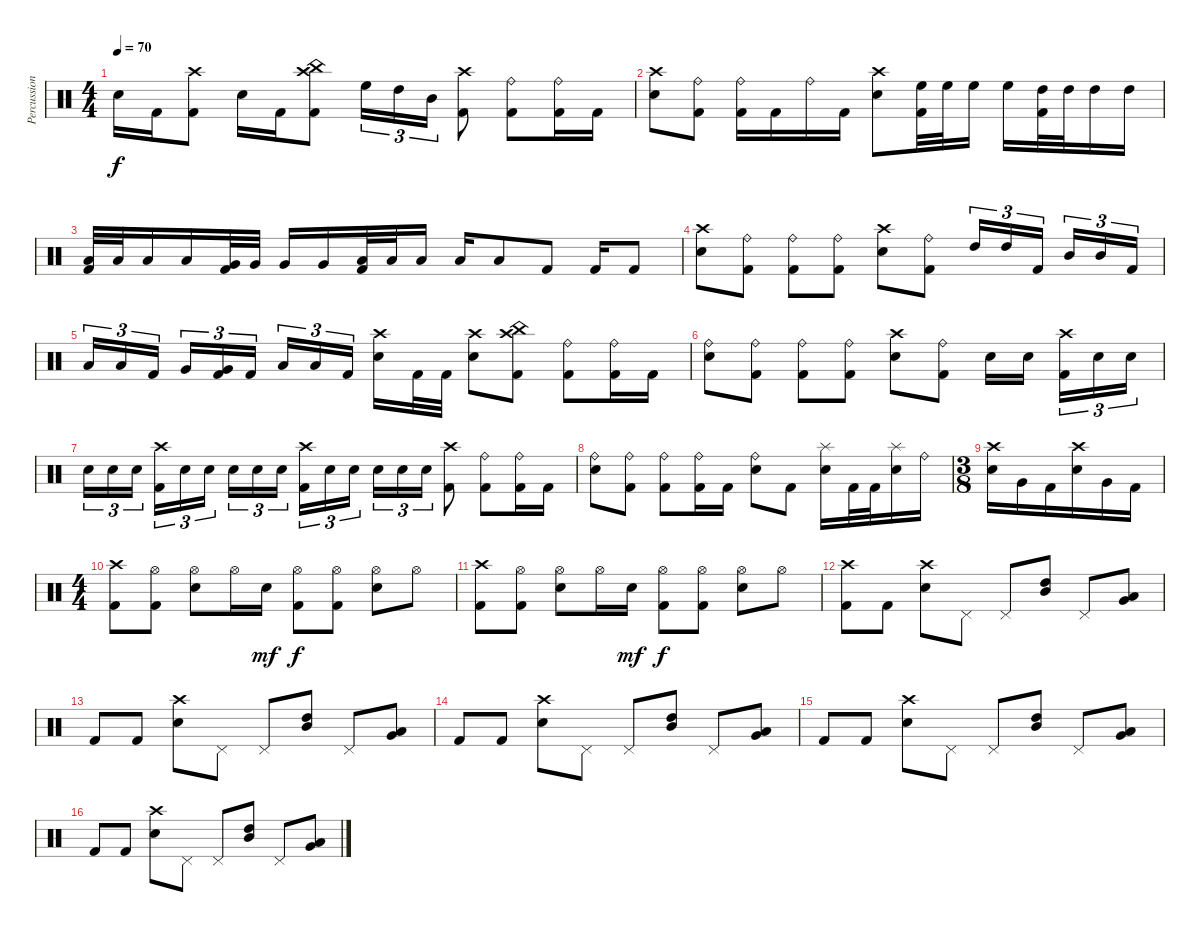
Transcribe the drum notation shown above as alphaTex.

\track ("Percussion" "Percussion") {instrument percussion}
\staff {score}
\articulation defaults
\ts (4 4)
\tempo 70
\clef neutral
\ks c "Snare (hit) 2".16{dy f} "Kick (hit) 2".16
("Crash high (hit)" "Kick (hit) 2").8 "Snare (hit) 2".16 "Kick (hit) 2".16 ("Crash high (hit)" "China (hit)" "Kick (hit) 2").8 "High Floor Tom (hit)".16{tu (3 2)} "High Tom (hit)".16{tu (3 2)} "Mid Tom (hit)".16{tu (3 2)} ("Crash high (hit)" "Kick (hit) 2").8 ("Ride (bell)" "Kick (hit) 2").8 ("Ride (bell)" "Kick (hit) 2").16 "Kick (hit) 2".16 |
("Crash high (hit)" "Snare (hit) 2").8 ("Ride (bell)" "Kick (hit) 2").8 ("Ride (bell)" "Kick (hit) 2").16 "Kick (hit) 2".16 "Ride (bell)".16 "Kick (hit) 2".16 ("Crash high (hit)" "Snare (hit) 2").8 ("High Floor Tom (hit)" "Kick (hit) 2").32 "High Floor Tom (hit)".32 "High Floor Tom (hit)".16 "High Floor Tom (hit)".16 ("High Tom (hit)" "Kick (hit) 2").32 "High Tom (hit)".32 "High Tom (hit)".16 "High Tom (hit)".16 |
("Low Tom (hit)" "Kick (hit) 2").32 "Low Tom (hit)".32 "Low Tom (hit)".16 "Low Tom (hit)".16 ("Very Low Tom (hit)" "Kick (hit) 2").32 "Very Low Tom (hit)".32 "Very Low Tom (hit)".16 "Very Low Tom (hit)".16 ("Low Floor Tom (hit)" "Kick (hit) 2").32 "Low Floor Tom (hit)".32 "Low Floor Tom (hit)".16 "Low Floor Tom (hit)".16 "Low Floor Tom (hit)".8 "Kick (hit) 2".8 "Kick (hit) 2".16 "Kick (hit) 2".8 |
("Crash high (hit)" "Snare (hit) 2").8 ("Ride (bell)" "Kick (hit) 2").8 ("Ride (bell)" "Kick (hit) 2").8 ("Ride (bell)" "Kick (hit) 2").8 ("Crash high (hit)" "Snare (hit) 2").8 ("Ride (bell)" "Kick (hit) 2").8 "High Tom (hit)".16{tu (3 2)} "High Tom (hit)".16{tu (3 2)} "Kick (hit) 2".16{tu (3 2)} "Mid Tom (hit)".16{tu (3 2)} "Mid Tom (hit)".16{tu (3 2)} "Kick (hit) 2".16{tu (3 2)} |
"Low Tom (hit)".16{tu (3 2)} "Low Tom (hit)".16{tu (3 2)} "Kick (hit) 2".16{tu (3 2)} "Very Low Tom (hit)".16{tu (3 2)} ("Very Low Tom (hit)" "Kick (hit) 2").16{tu (3 2)} "Kick (hit) 2".16{tu (3 2)} "Low Floor Tom (hit)".16{tu (3 2)} "Low Floor Tom (hit)".16{tu (3 2)} "Kick (hit) 2".16{tu (3 2)} ("Crash high (hit)" "Snare (hit) 2").16 "Kick (hit) 2".32 "Kick (hit) 2".32 ("Crash high (hit)" "Snare (hit) 2").8 ("Crash high (hit)" "China (hit)" "Kick (hit) 2").8 ("Ride (bell)" "Kick (hit) 2").8 ("Ride (bell)" "Kick (hit) 2").16 "Kick (hit) 2".16 |
("Ride (bell)" "Snare (hit) 2").8 ("Ride (bell)" "Kick (hit) 2").8 ("Ride (bell)" "Kick (hit) 2").8 ("Ride (bell)" "Kick (hit) 2").8 ("Crash high (hit)" "Snare (hit) 2").8 ("Ride (bell)" "Kick (hit) 2").8 "Snare (hit) 2".16 "Snare (hit) 2".16 ("Crash high (hit)" "Kick (hit) 2").16{tu (3 2)} "Snare (hit) 2".16{tu (3 2)} "Snare (hit) 2".16{tu (3 2)} |
"Snare (hit) 2".16{tu (3 2)} "Snare (hit) 2".16{tu (3 2)} "Snare (hit) 2".16{tu (3 2)} ("Crash high (hit)" "Kick (hit) 2").16{tu (3 2)} "Snare (hit) 2".16{tu (3 2)} "Snare (hit) 2".16{tu (3 2)} "Snare (hit) 2".16{tu (3 2)} "Snare (hit) 2".16{tu (3 2)} "Snare (hit) 2".16{tu (3 2)} ("Crash high (hit)" "Kick (hit) 2").16{tu (3 2)} "Snare (hit) 2".16{tu (3 2)} "Snare (hit) 2".16{tu (3 2)} "Snare (hit) 2".16{tu (3 2)} "Snare (hit) 2".16{tu (3 2)} "Snare (hit) 2".16{tu (3 2)} ("Crash high (hit)" "Kick (hit) 2").8 ("Ride (bell)" "Kick (hit) 2").8 ("Ride (bell)" "Kick (hit) 2").16 "Kick (hit) 2".16 |
("Ride (bell)" "Snare (hit) 2").8 ("Ride (bell)" "Kick (hit) 2").8 ("Ride (bell)" "Kick (hit) 2").8 ("Ride (bell)" "Kick (hit) 2").16 "Kick (hit) 2".16 ("Ride (bell)" "Snare (hit) 2").8 "Kick (hit) 2".8 ("Splash (hit)" "Snare (hit) 2").16 "Kick (hit) 2".32 "Kick (hit) 2".32 ("Splash (hit)" "Snare (hit) 2").16 "Ride (bell)".16 |
\ts (3 8)
("Crash high (hit)" "Snare (hit) 2").16 "Very Low Tom (hit)".16 "Kick (hit) 2".16 ("Crash high (hit)" "Snare (hit) 2").16 "Very Low Tom (hit)".16 "Kick (hit) 2".16 |
\ts (4 4)
("Crash high (hit)" "Kick (hit) 2").8 ("Hi-Hat (open)" "Kick (hit) 2").8 ("Hi-Hat (open)" "Snare (hit) 2").8 "Hi-Hat (open)".16 "Snare (hit) 2".16{dy mf} ("Hi-Hat (open)" "Kick (hit) 2").8{dy f} ("Hi-Hat (open)" "Kick (hit) 2").8 ("Hi-Hat (open)" "Snare (hit) 2").8 "Hi-Hat (open)".8 |
("Crash high (hit)" "Kick (hit) 2").8 ("Hi-Hat (open)" "Kick (hit) 2").8 ("Hi-Hat (open)" "Snare (hit) 2").8 "Hi-Hat (open)".16 "Snare (hit) 2".16{dy mf} ("Hi-Hat (open)" "Kick (hit) 2").8{dy f} ("Hi-Hat (open)" "Kick (hit) 2").8 ("Hi-Hat (open)" "Snare (hit) 2").8 "Hi-Hat (open)".8 |
("Crash high (hit)" "Kick (hit) 2").8 "Kick (hit) 2".8 ("Crash high (hit)" "Snare (hit) 2").8 "Pedal Hi-Hat (hit)".8 "Pedal Hi-Hat (hit)".8 ("High Tom (hit)" "Mid Tom (hit)").8 "Pedal Hi-Hat (hit)".8 ("Low Tom (hit)" "Very Low Tom (hit)").8 |
"Kick (hit) 2".8 "Kick (hit) 2".8 ("Crash high (hit)" "Snare (hit) 2").8 "Pedal Hi-Hat (hit)".8 "Pedal Hi-Hat (hit)".8 ("High Tom (hit)" "Mid Tom (hit)").8 "Pedal Hi-Hat (hit)".8 ("Low Tom (hit)" "Very Low Tom (hit)").8 |
"Kick (hit) 2".8 "Kick (hit) 2".8 ("Crash high (hit)" "Snare (hit) 2").8 "Pedal Hi-Hat (hit)".8 "Pedal Hi-Hat (hit)".8 ("High Tom (hit)" "Mid Tom (hit)").8 "Pedal Hi-Hat (hit)".8 ("Low Tom (hit)" "Very Low Tom (hit)").8 |
"Kick (hit) 2".8 "Kick (hit) 2".8 ("Crash high (hit)" "Snare (hit) 2").8 "Pedal Hi-Hat (hit)".8 "Pedal Hi-Hat (hit)".8 ("High Tom (hit)" "Mid Tom (hit)").8 "Pedal Hi-Hat (hit)".8 ("Low Tom (hit)" "Very Low Tom (hit)").8 |
"Kick (hit) 2".8 "Kick (hit) 2".8 ("Crash high (hit)" "Snare (hit) 2").8 "Pedal Hi-Hat (hit)".8 "Pedal Hi-Hat (hit)".8 ("High Tom (hit)" "Mid Tom (hit)").8 "Pedal Hi-Hat (hit)".8 ("Low Tom (hit)" "Very Low Tom (hit)").8
